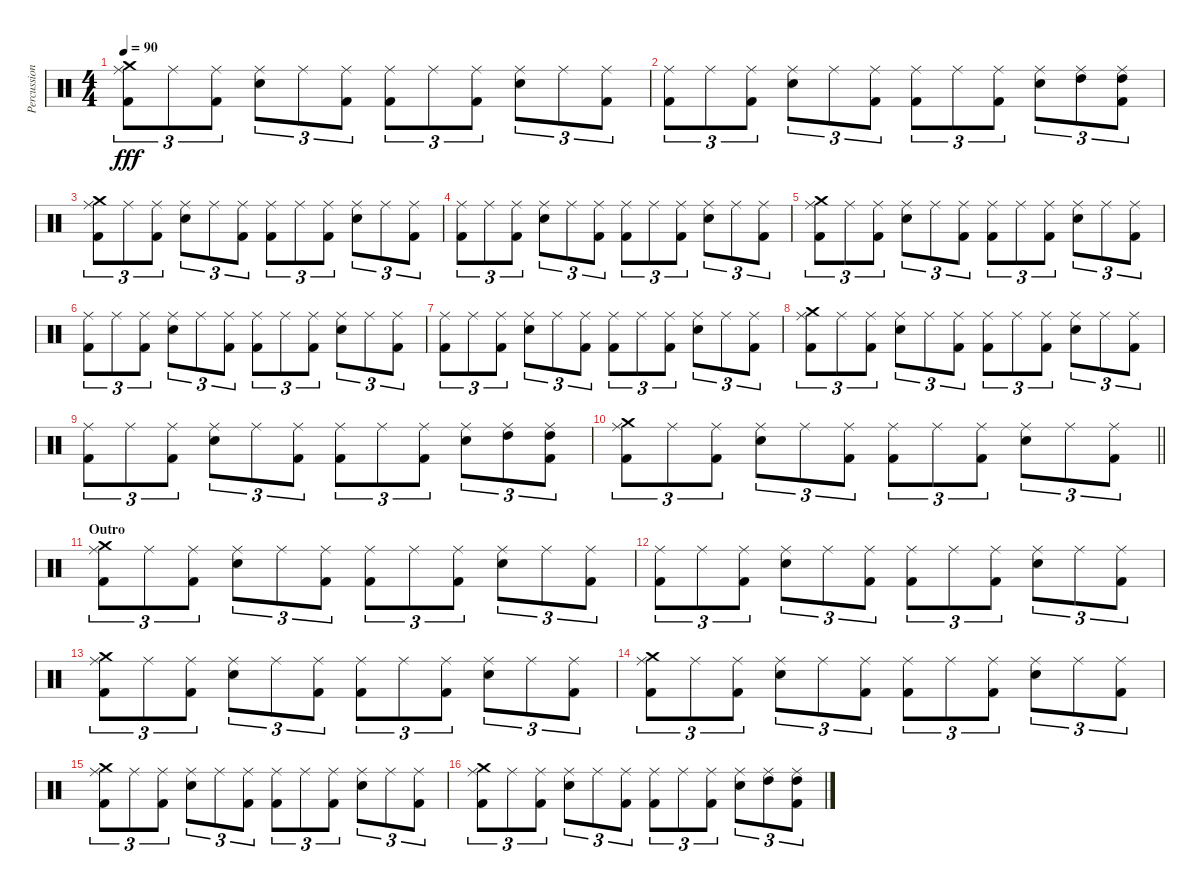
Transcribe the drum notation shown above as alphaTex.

\track ("Percussion" "Percussion") {instrument percussion}
\staff {score}
\articulation defaults
\ts (4 4)
\tempo 90
\clef neutral
\ks c
("Ride (middle)" "Crash medium (hit)" "Kick (hit) 2").8{tu (3 2) dy fff} "Ride (middle)".8{tu (3 2)} ("Ride (middle)" "Kick (hit) 2").8{tu (3 2)} ("Ride (middle)" "Electric Snare (hit)").8{tu (3 2)} "Ride (middle)".8{tu (3 2)} ("Ride (middle)" "Kick (hit) 2").8{tu (3 2)} ("Ride (middle)" "Kick (hit) 2").8{tu (3 2)} "Ride (middle)".8{tu (3 2)} ("Ride (middle)" "Kick (hit) 2").8{tu (3 2)} ("Ride (middle)" "Electric Snare (hit)").8{tu (3 2)} "Ride (middle)".8{tu (3 2)} ("Ride (middle)" "Kick (hit) 2").8{tu (3 2)} |
("Ride (middle)" "Kick (hit) 2").8{tu (3 2)} "Ride (middle)".8{tu (3 2)} ("Ride (middle)" "Kick (hit) 2").8{tu (3 2)} ("Ride (middle)" "Electric Snare (hit)").8{tu (3 2)} "Ride (middle)".8{tu (3 2)} ("Ride (middle)" "Kick (hit) 2").8{tu (3 2)} ("Ride (middle)" "Kick (hit) 2").8{tu (3 2)} "Ride (middle)".8{tu (3 2)} ("Ride (middle)" "Kick (hit) 2").8{tu (3 2)} ("Ride (middle)" "Electric Snare (hit)").8{tu (3 2)} ("Ride (middle)" "High Tom (hit)").8{tu (3 2)} ("Ride (middle)" "High Tom (hit)" "Kick (hit) 2").8{tu (3 2)} |
("Ride (middle)" "Crash medium (hit)" "Kick (hit) 2").8{tu (3 2)} "Ride (middle)".8{tu (3 2)} ("Ride (middle)" "Kick (hit) 2").8{tu (3 2)} ("Ride (middle)" "Electric Snare (hit)").8{tu (3 2)} "Ride (middle)".8{tu (3 2)} ("Ride (middle)" "Kick (hit) 2").8{tu (3 2)} ("Ride (middle)" "Kick (hit) 2").8{tu (3 2)} "Ride (middle)".8{tu (3 2)} ("Ride (middle)" "Kick (hit) 2").8{tu (3 2)} ("Ride (middle)" "Electric Snare (hit)").8{tu (3 2)} "Ride (middle)".8{tu (3 2)} ("Ride (middle)" "Kick (hit) 2").8{tu (3 2)} |
("Ride (middle)" "Kick (hit) 2").8{tu (3 2)} "Ride (middle)".8{tu (3 2)} ("Ride (middle)" "Kick (hit) 2").8{tu (3 2)} ("Ride (middle)" "Electric Snare (hit)").8{tu (3 2)} "Ride (middle)".8{tu (3 2)} ("Ride (middle)" "Kick (hit) 2").8{tu (3 2)} ("Ride (middle)" "Kick (hit) 2").8{tu (3 2)} "Ride (middle)".8{tu (3 2)} ("Ride (middle)" "Kick (hit) 2").8{tu (3 2)} ("Ride (middle)" "Electric Snare (hit)").8{tu (3 2)} "Ride (middle)".8{tu (3 2)} ("Ride (middle)" "Kick (hit) 2").8{tu (3 2)} |
("Ride (middle)" "Crash medium (hit)" "Kick (hit) 2").8{tu (3 2)} "Ride (middle)".8{tu (3 2)} ("Ride (middle)" "Kick (hit) 2").8{tu (3 2)} ("Ride (middle)" "Electric Snare (hit)").8{tu (3 2)} "Ride (middle)".8{tu (3 2)} ("Ride (middle)" "Kick (hit) 2").8{tu (3 2)} ("Ride (middle)" "Kick (hit) 2").8{tu (3 2)} "Ride (middle)".8{tu (3 2)} ("Ride (middle)" "Kick (hit) 2").8{tu (3 2)} ("Ride (middle)" "Electric Snare (hit)").8{tu (3 2)} "Ride (middle)".8{tu (3 2)} ("Ride (middle)" "Kick (hit) 2").8{tu (3 2)} |
("Ride (middle)" "Kick (hit) 2").8{tu (3 2)} "Ride (middle)".8{tu (3 2)} ("Ride (middle)" "Kick (hit) 2").8{tu (3 2)} ("Ride (middle)" "Electric Snare (hit)").8{tu (3 2)} "Ride (middle)".8{tu (3 2)} ("Ride (middle)" "Kick (hit) 2").8{tu (3 2)} ("Ride (middle)" "Kick (hit) 2").8{tu (3 2)} "Ride (middle)".8{tu (3 2)} ("Ride (middle)" "Kick (hit) 2").8{tu (3 2)} ("Ride (middle)" "Electric Snare (hit)").8{tu (3 2)} "Ride (middle)".8{tu (3 2)} ("Ride (middle)" "Kick (hit) 2").8{tu (3 2)} |
("Ride (middle)" "Kick (hit) 2").8{tu (3 2)} "Ride (middle)".8{tu (3 2)} ("Ride (middle)" "Kick (hit) 2").8{tu (3 2)} ("Ride (middle)" "Electric Snare (hit)").8{tu (3 2)} "Ride (middle)".8{tu (3 2)} ("Ride (middle)" "Kick (hit) 2").8{tu (3 2)} ("Ride (middle)" "Kick (hit) 2").8{tu (3 2)} "Ride (middle)".8{tu (3 2)} ("Ride (middle)" "Kick (hit) 2").8{tu (3 2)} ("Ride (middle)" "Electric Snare (hit)").8{tu (3 2)} "Ride (middle)".8{tu (3 2)} ("Ride (middle)" "Kick (hit) 2").8{tu (3 2)} |
("Ride (middle)" "Crash medium (hit)" "Kick (hit) 2").8{tu (3 2)} "Ride (middle)".8{tu (3 2)} ("Ride (middle)" "Kick (hit) 2").8{tu (3 2)} ("Ride (middle)" "Electric Snare (hit)").8{tu (3 2)} "Ride (middle)".8{tu (3 2)} ("Ride (middle)" "Kick (hit) 2").8{tu (3 2)} ("Ride (middle)" "Kick (hit) 2").8{tu (3 2)} "Ride (middle)".8{tu (3 2)} ("Ride (middle)" "Kick (hit) 2").8{tu (3 2)} ("Ride (middle)" "Electric Snare (hit)").8{tu (3 2)} "Ride (middle)".8{tu (3 2)} ("Ride (middle)" "Kick (hit) 2").8{tu (3 2)} |
("Ride (middle)" "Kick (hit) 2").8{tu (3 2)} "Ride (middle)".8{tu (3 2)} ("Ride (middle)" "Kick (hit) 2").8{tu (3 2)} ("Ride (middle)" "Electric Snare (hit)").8{tu (3 2)} "Ride (middle)".8{tu (3 2)} ("Ride (middle)" "Kick (hit) 2").8{tu (3 2)} ("Ride (middle)" "Kick (hit) 2").8{tu (3 2)} "Ride (middle)".8{tu (3 2)} ("Ride (middle)" "Kick (hit) 2").8{tu (3 2)} ("Ride (middle)" "Electric Snare (hit)").8{tu (3 2)} ("Ride (middle)" "High Tom (hit)").8{tu (3 2)} ("Ride (middle)" "High Tom (hit)" "Kick (hit) 2").8{tu (3 2)} |
\barLineRight lightlight
("Ride (middle)" "Crash medium (hit)" "Kick (hit) 2").8{tu (3 2)} "Ride (middle)".8{tu (3 2)} ("Ride (middle)" "Kick (hit) 2").8{tu (3 2)} ("Ride (middle)" "Electric Snare (hit)").8{tu (3 2)} "Ride (middle)".8{tu (3 2)} ("Ride (middle)" "Kick (hit) 2").8{tu (3 2)} ("Ride (middle)" "Kick (hit) 2").8{tu (3 2)} "Ride (middle)".8{tu (3 2)} ("Ride (middle)" "Kick (hit) 2").8{tu (3 2)} ("Ride (middle)" "Electric Snare (hit)").8{tu (3 2)} "Ride (middle)".8{tu (3 2)} ("Ride (middle)" "Kick (hit) 2").8{tu (3 2)} |
\section ("" "Outro")
("Ride (middle)" "Crash medium (hit)" "Kick (hit) 2").8{tu (3 2)} "Ride (middle)".8{tu (3 2)} ("Ride (middle)" "Kick (hit) 2").8{tu (3 2)} ("Ride (middle)" "Electric Snare (hit)").8{tu (3 2)} "Ride (middle)".8{tu (3 2)} ("Ride (middle)" "Kick (hit) 2").8{tu (3 2)} ("Ride (middle)" "Kick (hit) 2").8{tu (3 2)} "Ride (middle)".8{tu (3 2)} ("Ride (middle)" "Kick (hit) 2").8{tu (3 2)} ("Ride (middle)" "Electric Snare (hit)").8{tu (3 2)} "Ride (middle)".8{tu (3 2)} ("Ride (middle)" "Kick (hit) 2").8{tu (3 2)} |
("Ride (middle)" "Kick (hit) 2").8{tu (3 2)} "Ride (middle)".8{tu (3 2)} ("Ride (middle)" "Kick (hit) 2").8{tu (3 2)} ("Ride (middle)" "Electric Snare (hit)").8{tu (3 2)} "Ride (middle)".8{tu (3 2)} ("Ride (middle)" "Kick (hit) 2").8{tu (3 2)} ("Ride (middle)" "Kick (hit) 2").8{tu (3 2)} "Ride (middle)".8{tu (3 2)} ("Ride (middle)" "Kick (hit) 2").8{tu (3 2)} ("Ride (middle)" "Electric Snare (hit)").8{tu (3 2)} "Ride (middle)".8{tu (3 2)} ("Ride (middle)" "Kick (hit) 2").8{tu (3 2)} |
("Ride (middle)" "Crash medium (hit)" "Kick (hit) 2").8{tu (3 2)} "Ride (middle)".8{tu (3 2)} ("Ride (middle)" "Kick (hit) 2").8{tu (3 2)} ("Ride (middle)" "Electric Snare (hit)").8{tu (3 2)} "Ride (middle)".8{tu (3 2)} ("Ride (middle)" "Kick (hit) 2").8{tu (3 2)} ("Ride (middle)" "Kick (hit) 2").8{tu (3 2)} "Ride (middle)".8{tu (3 2)} ("Ride (middle)" "Kick (hit) 2").8{tu (3 2)} ("Ride (middle)" "Electric Snare (hit)").8{tu (3 2)} "Ride (middle)".8{tu (3 2)} ("Ride (middle)" "Kick (hit) 2").8{tu (3 2)} |
("Ride (middle)" "Crash medium (hit)" "Kick (hit) 2").8{tu (3 2)} "Ride (middle)".8{tu (3 2)} ("Ride (middle)" "Kick (hit) 2").8{tu (3 2)} ("Ride (middle)" "Electric Snare (hit)").8{tu (3 2)} "Ride (middle)".8{tu (3 2)} ("Ride (middle)" "Kick (hit) 2").8{tu (3 2)} ("Ride (middle)" "Kick (hit) 2").8{tu (3 2)} "Ride (middle)".8{tu (3 2)} ("Ride (middle)" "Kick (hit) 2").8{tu (3 2)} ("Ride (middle)" "Electric Snare (hit)").8{tu (3 2)} "Ride (middle)".8{tu (3 2)} ("Ride (middle)" "Kick (hit) 2").8{tu (3 2)} |
("Ride (middle)" "Crash medium (hit)" "Kick (hit) 2").8{tu (3 2)} "Ride (middle)".8{tu (3 2)} ("Ride (middle)" "Kick (hit) 2").8{tu (3 2)} ("Ride (middle)" "Electric Snare (hit)").8{tu (3 2)} "Ride (middle)".8{tu (3 2)} ("Ride (middle)" "Kick (hit) 2").8{tu (3 2)} ("Ride (middle)" "Kick (hit) 2").8{tu (3 2)} "Ride (middle)".8{tu (3 2)} ("Ride (middle)" "Kick (hit) 2").8{tu (3 2)} ("Ride (middle)" "Electric Snare (hit)").8{tu (3 2)} "Ride (middle)".8{tu (3 2)} ("Ride (middle)" "Kick (hit) 2").8{tu (3 2)} |
("Ride (middle)" "Crash medium (hit)" "Kick (hit) 2").8{tu (3 2)} "Ride (middle)".8{tu (3 2)} ("Ride (middle)" "Kick (hit) 2").8{tu (3 2)} ("Ride (middle)" "Electric Snare (hit)").8{tu (3 2)} "Ride (middle)".8{tu (3 2)} ("Ride (middle)" "Kick (hit) 2").8{tu (3 2)} ("Ride (middle)" "Kick (hit) 2").8{tu (3 2)} "Ride (middle)".8{tu (3 2)} ("Ride (middle)" "Kick (hit) 2").8{tu (3 2)} ("Ride (middle)" "Electric Snare (hit)").8{tu (3 2)} ("Ride (middle)" "High Tom (hit)").8{tu (3 2)} ("Ride (middle)" "High Tom (hit)" "Kick (hit) 2").8{tu (3 2)}
